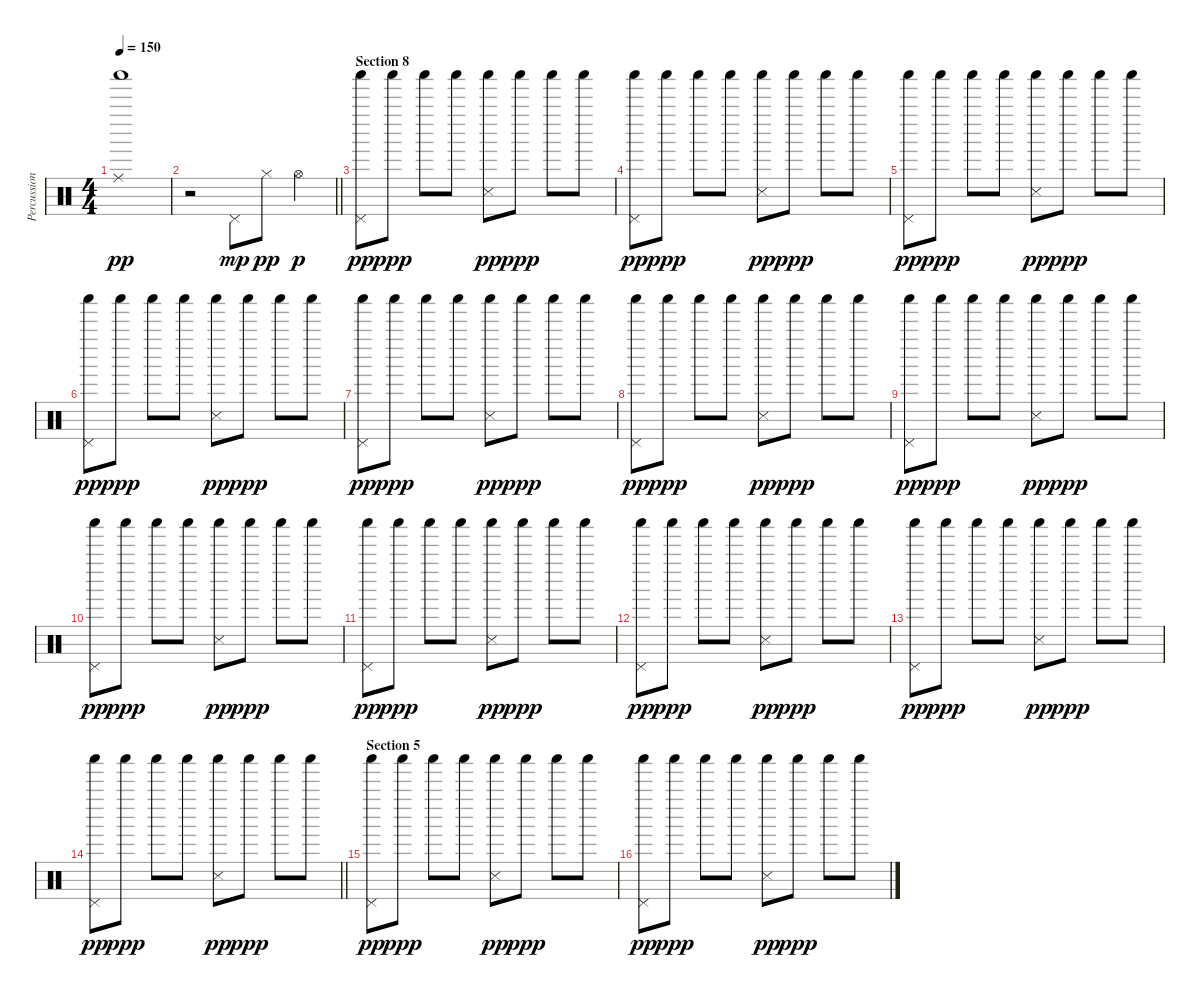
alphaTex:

\track ("Percussion" "Percussion") {instrument percussion}
\staff {score}
\articulation defaults
\ts (4 4)
\tempo 150
\clef neutral
\ks c
("Ride (middle)" "Shaker (hit)").1{dy pp} |
\barLineRight lightlight
r.2 "Pedal Hi-Hat (hit)".8{dy mp} "Hi-Hat (closed)".8{dy pp} "Hi-Hat (open)".4{dy p} |
\section ("" "Section 8")
("Pedal Hi-Hat (hit)" "Shaker (hit)").8{dy pp} "Shaker (hit)".8{dy ppp} "Shaker (hit)".8 "Shaker (hit)".8 ("Snare (side stick) 3" "Shaker (hit)").8{dy pp} "Shaker (hit)".8{dy ppp} "Shaker (hit)".8 "Shaker (hit)".8 |
("Pedal Hi-Hat (hit)" "Shaker (hit)").8{dy pp} "Shaker (hit)".8{dy ppp} "Shaker (hit)".8 "Shaker (hit)".8 ("Snare (side stick) 3" "Shaker (hit)").8{dy pp} "Shaker (hit)".8{dy ppp} "Shaker (hit)".8 "Shaker (hit)".8 |
("Pedal Hi-Hat (hit)" "Shaker (hit)").8{dy pp} "Shaker (hit)".8{dy ppp} "Shaker (hit)".8 "Shaker (hit)".8 ("Snare (side stick) 3" "Shaker (hit)").8{dy pp} "Shaker (hit)".8{dy ppp} "Shaker (hit)".8 "Shaker (hit)".8 |
("Pedal Hi-Hat (hit)" "Shaker (hit)").8{dy pp} "Shaker (hit)".8{dy ppp} "Shaker (hit)".8 "Shaker (hit)".8 ("Snare (side stick) 3" "Shaker (hit)").8{dy pp} "Shaker (hit)".8{dy ppp} "Shaker (hit)".8 "Shaker (hit)".8 |
("Pedal Hi-Hat (hit)" "Shaker (hit)").8{dy pp} "Shaker (hit)".8{dy ppp} "Shaker (hit)".8 "Shaker (hit)".8 ("Snare (side stick) 3" "Shaker (hit)").8{dy pp} "Shaker (hit)".8{dy ppp} "Shaker (hit)".8 "Shaker (hit)".8 |
("Pedal Hi-Hat (hit)" "Shaker (hit)").8{dy pp} "Shaker (hit)".8{dy ppp} "Shaker (hit)".8 "Shaker (hit)".8 ("Snare (side stick) 3" "Shaker (hit)").8{dy pp} "Shaker (hit)".8{dy ppp} "Shaker (hit)".8 "Shaker (hit)".8 |
("Pedal Hi-Hat (hit)" "Shaker (hit)").8{dy pp} "Shaker (hit)".8{dy ppp} "Shaker (hit)".8 "Shaker (hit)".8 ("Snare (side stick) 3" "Shaker (hit)").8{dy pp} "Shaker (hit)".8{dy ppp} "Shaker (hit)".8 "Shaker (hit)".8 |
("Pedal Hi-Hat (hit)" "Shaker (hit)").8{dy pp} "Shaker (hit)".8{dy ppp} "Shaker (hit)".8 "Shaker (hit)".8 ("Snare (side stick) 3" "Shaker (hit)").8{dy pp} "Shaker (hit)".8{dy ppp} "Shaker (hit)".8 "Shaker (hit)".8 |
("Pedal Hi-Hat (hit)" "Shaker (hit)").8{dy pp} "Shaker (hit)".8{dy ppp} "Shaker (hit)".8 "Shaker (hit)".8 ("Snare (side stick) 3" "Shaker (hit)").8{dy pp} "Shaker (hit)".8{dy ppp} "Shaker (hit)".8 "Shaker (hit)".8 |
("Pedal Hi-Hat (hit)" "Shaker (hit)").8{dy pp} "Shaker (hit)".8{dy ppp} "Shaker (hit)".8 "Shaker (hit)".8 ("Snare (side stick) 3" "Shaker (hit)").8{dy pp} "Shaker (hit)".8{dy ppp} "Shaker (hit)".8 "Shaker (hit)".8 |
("Pedal Hi-Hat (hit)" "Shaker (hit)").8{dy pp} "Shaker (hit)".8{dy ppp} "Shaker (hit)".8 "Shaker (hit)".8 ("Snare (side stick) 3" "Shaker (hit)").8{dy pp} "Shaker (hit)".8{dy ppp} "Shaker (hit)".8 "Shaker (hit)".8 |
\barLineRight lightlight
("Pedal Hi-Hat (hit)" "Shaker (hit)").8{dy pp} "Shaker (hit)".8{dy ppp} "Shaker (hit)".8 "Shaker (hit)".8 ("Snare (side stick) 3" "Shaker (hit)").8{dy pp} "Shaker (hit)".8{dy ppp} "Shaker (hit)".8 "Shaker (hit)".8 |
\section ("" "Section 5")
("Pedal Hi-Hat (hit)" "Shaker (hit)").8{dy pp} "Shaker (hit)".8{dy ppp} "Shaker (hit)".8 "Shaker (hit)".8 ("Snare (side stick) 3" "Shaker (hit)").8{dy pp} "Shaker (hit)".8{dy ppp} "Shaker (hit)".8 "Shaker (hit)".8 |
("Pedal Hi-Hat (hit)" "Shaker (hit)").8{dy pp} "Shaker (hit)".8{dy ppp} "Shaker (hit)".8 "Shaker (hit)".8 ("Snare (side stick) 3" "Shaker (hit)").8{dy pp} "Shaker (hit)".8{dy ppp} "Shaker (hit)".8 "Shaker (hit)".8
